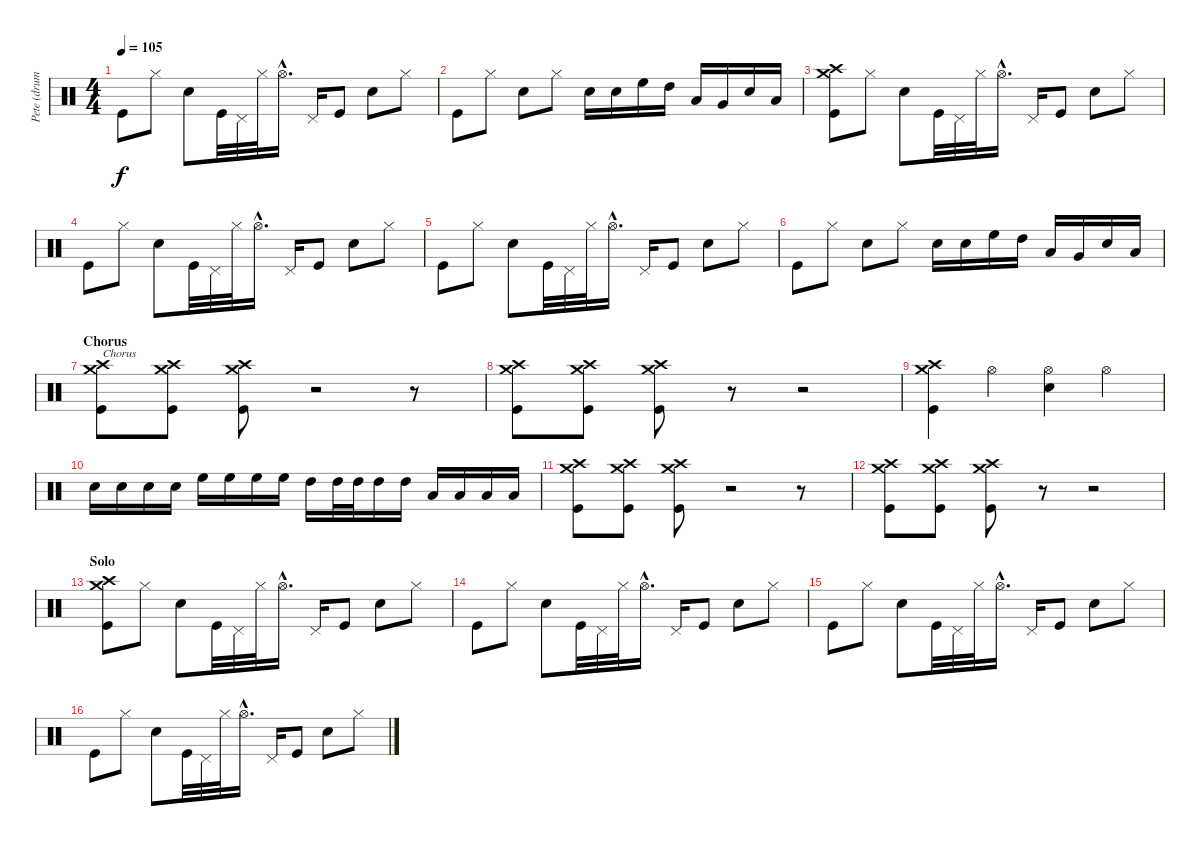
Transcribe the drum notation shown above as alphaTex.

\track ("Pete (drums)" "Pete (drum") {instrument percussion}
\staff {score}
\articulation defaults
\ts (4 4)
\tempo 105
\clef neutral
\ks c "Kick (hit)".8{dy f} "Hi-Hat (closed)".8 "Snare (hit) 2".8 "Kick (hit)".32 "Pedal Hi-Hat (hit)".32 "Hi-Hat (closed)".32 "Hi-Hat (open)"{hac}.16{d} "Pedal Hi-Hat (hit)".16 "Kick (hit)".8 "Snare (hit) 2".8 "Hi-Hat (closed)".8
|
"Kick (hit)".8 "Hi-Hat (closed)".8 "Snare (hit) 2".8 "Hi-Hat (closed)".8 "Snare (hit) 2".16 "Snare (hit) 2".16 "High Floor Tom (hit)".16 "High Tom (hit)".16 "Low Tom (hit)".16 "Very Low Tom (hit)".16 "Snare (hit) 2".16 "Low Floor Tom (hit)".16 |
("Crash medium (hit)" "Crash high (hit)" "Kick (hit)").8 "Hi-Hat (closed)".8 "Snare (hit) 2".8 "Kick (hit)".32 "Pedal Hi-Hat (hit)".32 "Hi-Hat (closed)".32 "Hi-Hat (open)"{hac}.16{d} "Pedal Hi-Hat (hit)".16 "Kick (hit)".8 "Snare (hit) 2".8 "Hi-Hat (closed)".8 |
"Kick (hit)".8 "Hi-Hat (closed)".8 "Snare (hit) 2".8 "Kick (hit)".32 "Pedal Hi-Hat (hit)".32 "Hi-Hat (closed)".32 "Hi-Hat (open)"{hac}.16{d} "Pedal Hi-Hat (hit)".16 "Kick (hit)".8 "Snare (hit) 2".8 "Hi-Hat (closed)".8 |
"Kick (hit)".8 "Hi-Hat (closed)".8 "Snare (hit) 2".8 "Kick (hit)".32 "Pedal Hi-Hat (hit)".32 "Hi-Hat (closed)".32 "Hi-Hat (open)"{hac}.16{d} "Pedal Hi-Hat (hit)".16 "Kick (hit)".8 "Snare (hit) 2".8 "Hi-Hat (closed)".8 |
"Kick (hit)".8 "Hi-Hat (closed)".8 "Snare (hit) 2".8 "Hi-Hat (closed)".8 "Snare (hit) 2".16 "Snare (hit) 2".16 "High Floor Tom (hit)".16 "High Tom (hit)".16 "Low Tom (hit)".16 "Very Low Tom (hit)".16 "Snare (hit) 2".16 "Low Floor Tom (hit)".16 |
\section ("" "Chorus")
("Crash medium (hit)" "Crash high (hit)" "Kick (hit)").8{txt "Chorus"} ("Crash medium (hit)" "Crash high (hit)" "Kick (hit)").8 ("Crash medium (hit)" "Crash high (hit)" "Kick (hit)").8 r.2 r.8 |
("Crash medium (hit)" "Crash high (hit)" "Kick (hit)").8 ("Crash medium (hit)" "Crash high (hit)" "Kick (hit)").8 ("Crash medium (hit)" "Crash high (hit)" "Kick (hit)").8 r.8 r.2 |
("Crash medium (hit)" "Crash high (hit)" "Kick (hit)").4 "Hi-Hat (open)".4 ("Hi-Hat (open)" "Snare (hit) 2").4 "Hi-Hat (open)".4 |
"Snare (hit) 2".16 "Snare (hit) 2".16 "Snare (hit) 2".16 "Snare (hit) 2".16 "High Floor Tom (hit)".16 "High Floor Tom (hit)".16 "High Floor Tom (hit)".16 "High Floor Tom (hit)".16 "High Tom (hit)".16 "High Tom (hit)".32 "High Tom (hit)".32 "High Tom (hit)".16 "High Tom (hit)".16 "Low Tom (hit)".16 "Low Tom (hit)".16 "Low Tom (hit)".16 "Low Tom (hit)".16 |
("Crash medium (hit)" "Crash high (hit)" "Kick (hit)").8 ("Crash medium (hit)" "Crash high (hit)" "Kick (hit)").8 ("Crash medium (hit)" "Crash high (hit)" "Kick (hit)").8 r.2 r.8 |
("Crash medium (hit)" "Crash high (hit)" "Kick (hit)").8 ("Crash medium (hit)" "Crash high (hit)" "Kick (hit)").8 ("Crash medium (hit)" "Crash high (hit)" "Kick (hit)").8 r.8 r.2 |
\section ("" "Solo")
("Crash high (hit)" "Crash medium (hit)" "Kick (hit)").8 "Hi-Hat (closed)".8 "Snare (hit) 2".8 "Kick (hit)".32 "Pedal Hi-Hat (hit)".32 "Hi-Hat (closed)".32 "Hi-Hat (open)"{hac}.16{d} "Pedal Hi-Hat (hit)".16 "Kick (hit)".8 "Snare (hit) 2".8 "Hi-Hat (closed)".8 |
"Kick (hit)".8 "Hi-Hat (closed)".8 "Snare (hit) 2".8 "Kick (hit)".32 "Pedal Hi-Hat (hit)".32 "Hi-Hat (closed)".32 "Hi-Hat (open)"{hac}.16{d} "Pedal Hi-Hat (hit)".16 "Kick (hit)".8 "Snare (hit) 2".8 "Hi-Hat (closed)".8 |
"Kick (hit)".8 "Hi-Hat (closed)".8 "Snare (hit) 2".8 "Kick (hit)".32 "Pedal Hi-Hat (hit)".32 "Hi-Hat (closed)".32 "Hi-Hat (open)"{hac}.16{d} "Pedal Hi-Hat (hit)".16 "Kick (hit)".8 "Snare (hit) 2".8 "Hi-Hat (closed)".8 |
"Kick (hit)".8 "Hi-Hat (closed)".8 "Snare (hit) 2".8 "Kick (hit)".32 "Pedal Hi-Hat (hit)".32 "Hi-Hat (closed)".32 "Hi-Hat (open)"{hac}.16{d} "Pedal Hi-Hat (hit)".16 "Kick (hit)".8 "Snare (hit) 2".8 "Hi-Hat (closed)".8
